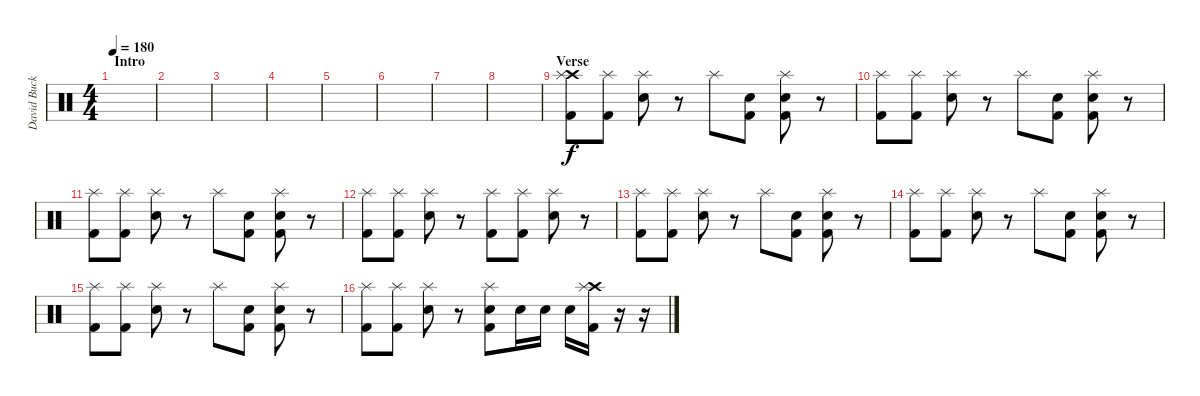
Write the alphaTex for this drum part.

\track ("David Buckner" "David Buck") {instrument percussion}
\staff {score}
\articulation defaults
\ts (4 4)
\section ("" "Intro")
\tempo 180
\clef neutral
\ks c
|
|
|
|
|
|
|
|
\section ("" "Verse")
("Crash high (hit)" "Splash (hit)" "Kick (hit) 2").8 ("Splash (hit)" "Kick (hit) 2").8 ("Splash (hit)" "Snare (hit) 2").8 r.8 "Splash (hit)".8 ("Snare (hit) 2" "Kick (hit) 2").8 ("Splash (hit)" "Snare (hit) 2" "Kick (hit) 2").8 r.8 |
("Splash (hit)" "Kick (hit) 2").8 ("Splash (hit)" "Kick (hit) 2").8 ("Splash (hit)" "Snare (hit) 2").8 r.8 "Splash (hit)".8 ("Snare (hit) 2" "Kick (hit) 2").8 ("Splash (hit)" "Snare (hit) 2" "Kick (hit) 2").8 r.8 |
("Splash (hit)" "Kick (hit) 2").8 ("Splash (hit)" "Kick (hit) 2").8 ("Splash (hit)" "Snare (hit) 2").8 r.8 "Splash (hit)".8 ("Snare (hit) 2" "Kick (hit) 2").8 ("Splash (hit)" "Snare (hit) 2" "Kick (hit) 2").8 r.8 |
("Splash (hit)" "Kick (hit) 2").8 ("Splash (hit)" "Kick (hit) 2").8 ("Splash (hit)" "Snare (hit) 2").8 r.8 ("Splash (hit)" "Kick (hit) 2").8 ("Splash (hit)" "Kick (hit) 2").8 ("Splash (hit)" "Snare (hit) 2").8 r.8 |
("Splash (hit)" "Kick (hit) 2").8 ("Splash (hit)" "Kick (hit) 2").8 ("Splash (hit)" "Snare (hit) 2").8 r.8 "Splash (hit)".8 ("Snare (hit) 2" "Kick (hit) 2").8 ("Splash (hit)" "Snare (hit) 2" "Kick (hit) 2").8 r.8 |
("Splash (hit)" "Kick (hit) 2").8 ("Splash (hit)" "Kick (hit) 2").8 ("Splash (hit)" "Snare (hit) 2").8 r.8 "Splash (hit)".8 ("Snare (hit) 2" "Kick (hit) 2").8 ("Splash (hit)" "Snare (hit) 2" "Kick (hit) 2").8 r.8 |
("Splash (hit)" "Kick (hit) 2").8 ("Splash (hit)" "Kick (hit) 2").8 ("Splash (hit)" "Snare (hit) 2").8 r.8 "Splash (hit)".8 ("Snare (hit) 2" "Kick (hit) 2").8 ("Splash (hit)" "Snare (hit) 2" "Kick (hit) 2").8 r.8 |
("Splash (hit)" "Kick (hit) 2").8 ("Splash (hit)" "Kick (hit) 2").8 ("Splash (hit)" "Snare (hit) 2").8 r.8 ("Splash (hit)" "Snare (hit) 2" "Kick (hit) 2").8 "Snare (hit) 2".16 "Snare (hit) 2".16 "Snare (hit) 2".16 ("Crash high (hit)" "Splash (hit)" "Kick (hit) 2").16 r.16 r.16
